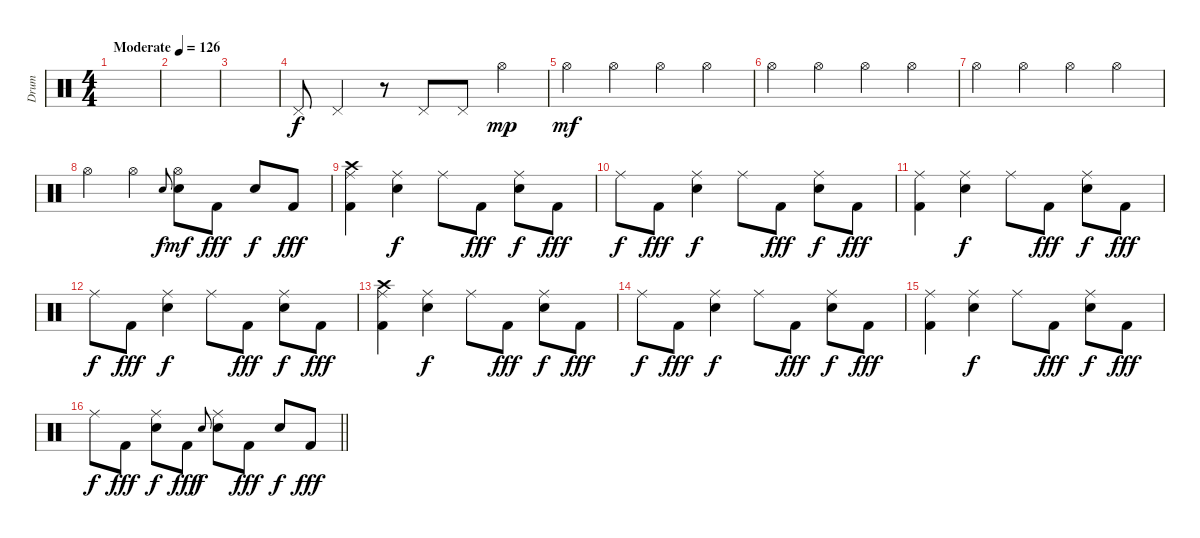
\track ("Drum" "Drum") {instrument percussion}
\staff {score}
\articulation defaults
\ts (4 4)
\tempo (126 "Moderate")
\clef neutral
\ks c
|
|
|
"Pedal Hi-Hat (hit)".8 "Pedal Hi-Hat (hit)".4 r.8 "Pedal Hi-Hat (hit)".8 "Pedal Hi-Hat (hit)".8 "Hi-Hat (open)".4{dy mp} |
"Hi-Hat (open)".4{dy mf} "Hi-Hat (open)".4 "Hi-Hat (open)".4 "Hi-Hat (open)".4 |
"Hi-Hat (open)".4 "Hi-Hat (open)".4 "Hi-Hat (open)".4 "Hi-Hat (open)".4 |
"Hi-Hat (open)".4 "Hi-Hat (open)".4 "Hi-Hat (open)".4 "Hi-Hat (open)".4 |
"Hi-Hat (open)".4 "Hi-Hat (open)".4 "Electric Snare (hit)".8{gr onbeat dy f} ("Electric Snare (hit)" "Hi-Hat (open)").8{dy mf} "Kick (hit) 2".8{dy fff} "Electric Snare (hit)".8{dy f} "Kick (hit) 2".8{dy fff} |
("Kick (hit) 2" "Ride (middle)" "Crash high (hit)").4 ("Electric Snare (hit)" "Ride (middle)").4{dy f} "Ride (middle)".8 "Kick (hit) 2".8{dy fff} ("Electric Snare (hit)" "Ride (middle)").8{dy f} "Kick (hit) 2".8{dy fff} |
"Ride (middle)".8{dy f} "Kick (hit) 2".8{dy fff} ("Electric Snare (hit)" "Ride (middle)").4{dy f} "Ride (middle)".8 "Kick (hit) 2".8{dy fff} ("Electric Snare (hit)" "Ride (middle)").8{dy f} "Kick (hit) 2".8{dy fff} |
("Kick (hit) 2" "Ride (middle)").4 ("Electric Snare (hit)" "Ride (middle)").4{dy f} "Ride (middle)".8 "Kick (hit) 2".8{dy fff} ("Electric Snare (hit)" "Ride (middle)").8{dy f} "Kick (hit) 2".8{dy fff} |
"Ride (middle)".8{dy f} "Kick (hit) 2".8{dy fff} ("Electric Snare (hit)" "Ride (middle)").4{dy f} "Ride (middle)".8 "Kick (hit) 2".8{dy fff} ("Electric Snare (hit)" "Ride (middle)").8{dy f} "Kick (hit) 2".8{dy fff} |
("Kick (hit) 2" "Ride (middle)" "Crash high (hit)").4 ("Electric Snare (hit)" "Ride (middle)").4{dy f} "Ride (middle)".8 "Kick (hit) 2".8{dy fff} ("Electric Snare (hit)" "Ride (middle)").8{dy f} "Kick (hit) 2".8{dy fff} |
"Ride (middle)".8{dy f} "Kick (hit) 2".8{dy fff} ("Electric Snare (hit)" "Ride (middle)").4{dy f} "Ride (middle)".8 "Kick (hit) 2".8{dy fff} ("Electric Snare (hit)" "Ride (middle)").8{dy f} "Kick (hit) 2".8{dy fff} |
("Kick (hit) 2" "Ride (middle)").4 ("Electric Snare (hit)" "Ride (middle)").4{dy f} "Ride (middle)".8 "Kick (hit) 2".8{dy fff} ("Electric Snare (hit)" "Ride (middle)").8{dy f} "Kick (hit) 2".8{dy fff} |
\barLineRight lightlight "Ride (middle)".8{dy f} "Kick (hit) 2".8{dy fff}
("Electric Snare (hit)" "Ride (middle)").8{dy f} "Kick (hit) 2".8{dy fff} "Electric Snare (hit)".8{gr onbeat dy f} ("Electric Snare (hit)" "Ride (middle)").8 "Kick (hit) 2".8{dy fff} "Electric Snare (hit)".8{dy f} "Kick (hit) 2".8{dy fff}
